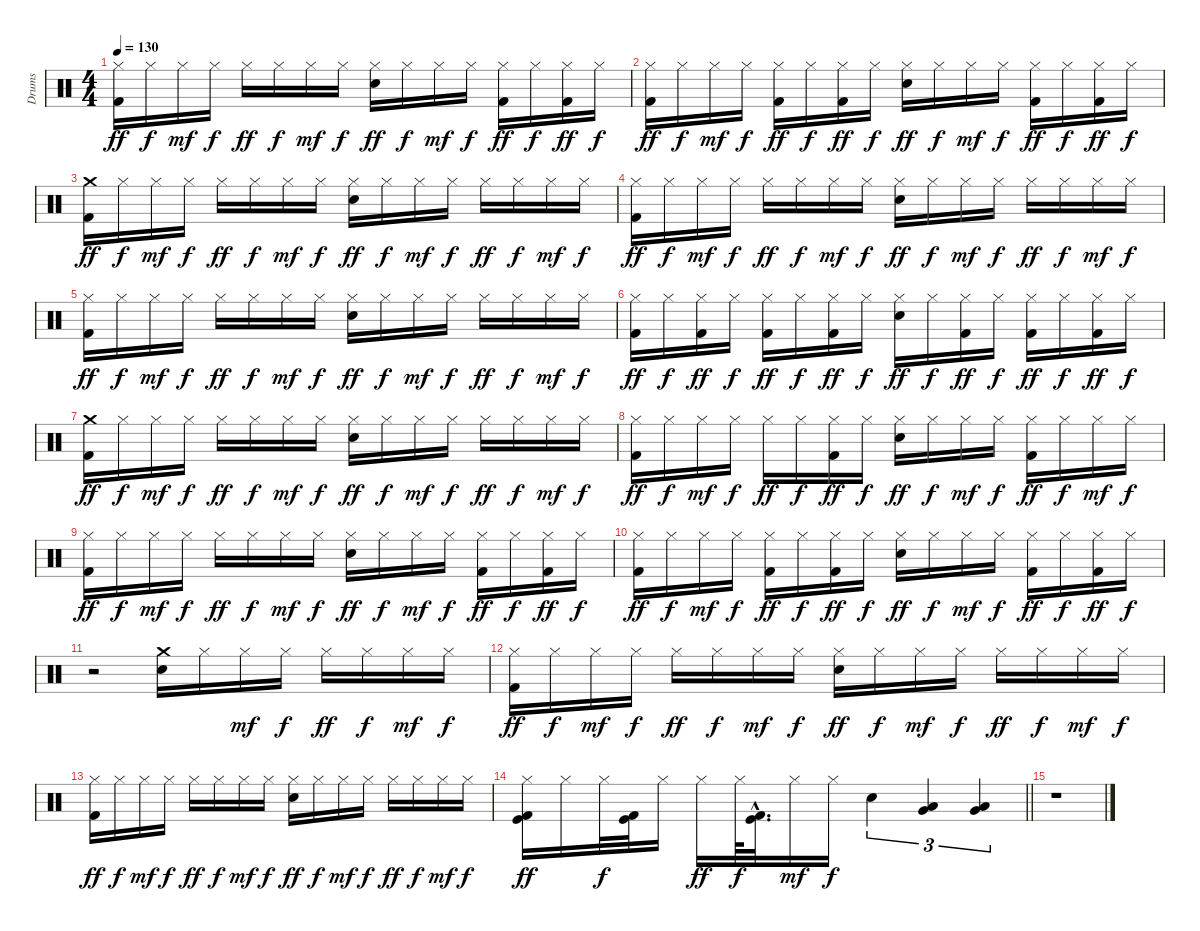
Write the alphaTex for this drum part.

\track ("Drums" "Drums") {instrument percussion}
\staff {score}
\articulation defaults
\ts (4 4)
\tempo 130
\clef neutral
\ks c
("Hi-Hat (closed)" "Kick (hit) 2").16{dy ff} "Hi-Hat (closed)".16{dy f} "Hi-Hat (closed)".16{dy mf} "Hi-Hat (closed)".16{dy f} "Hi-Hat (closed)".16{dy ff} "Hi-Hat (closed)".16{dy f} "Hi-Hat (closed)".16{dy mf} "Hi-Hat (closed)".16{dy f} ("Hi-Hat (closed)" "Snare (hit) 2").16{dy ff} "Hi-Hat (closed)".16{dy f} "Hi-Hat (closed)".16{dy mf} "Hi-Hat (closed)".16{dy f} ("Hi-Hat (closed)" "Kick (hit) 2").16{dy ff} "Hi-Hat (closed)".16{dy f} ("Hi-Hat (closed)" "Kick (hit) 2").16{dy ff} "Hi-Hat (closed)".16{dy f} |
("Hi-Hat (closed)" "Kick (hit) 2").16{dy ff} "Hi-Hat (closed)".16{dy f} "Hi-Hat (closed)".16{dy mf} "Hi-Hat (closed)".16{dy f} ("Hi-Hat (closed)" "Kick (hit) 2").16{dy ff} "Hi-Hat (closed)".16{dy f} ("Hi-Hat (closed)" "Kick (hit) 2").16{dy ff} "Hi-Hat (closed)".16{dy f} ("Hi-Hat (closed)" "Snare (hit) 2").16{dy ff} "Hi-Hat (closed)".16{dy f} "Hi-Hat (closed)".16{dy mf} "Hi-Hat (closed)".16{dy f} ("Hi-Hat (closed)" "Kick (hit) 2").16{dy ff} "Hi-Hat (closed)".16{dy f} ("Hi-Hat (closed)" "Kick (hit) 2").16{dy ff} "Hi-Hat (closed)".16{dy f} |
("Crash medium (hit)" "Kick (hit) 2").16{dy ff} "Hi-Hat (closed)".16{dy f} "Hi-Hat (closed)".16{dy mf} "Hi-Hat (closed)".16{dy f} "Hi-Hat (closed)".16{dy ff} "Hi-Hat (closed)".16{dy f} "Hi-Hat (closed)".16{dy mf} "Hi-Hat (closed)".16{dy f} ("Hi-Hat (closed)" "Snare (hit) 2").16{dy ff} "Hi-Hat (closed)".16{dy f} "Hi-Hat (closed)".16{dy mf} "Hi-Hat (closed)".16{dy f} "Hi-Hat (closed)".16{dy ff} "Hi-Hat (closed)".16{dy f} "Hi-Hat (closed)".16{dy mf} "Hi-Hat (closed)".16{dy f} |
("Hi-Hat (closed)" "Kick (hit) 2").16{dy ff} "Hi-Hat (closed)".16{dy f} "Hi-Hat (closed)".16{dy mf} "Hi-Hat (closed)".16{dy f} "Hi-Hat (closed)".16{dy ff} "Hi-Hat (closed)".16{dy f} "Hi-Hat (closed)".16{dy mf} "Hi-Hat (closed)".16{dy f} ("Hi-Hat (closed)" "Snare (hit) 2").16{dy ff} "Hi-Hat (closed)".16{dy f} "Hi-Hat (closed)".16{dy mf} "Hi-Hat (closed)".16{dy f} "Hi-Hat (closed)".16{dy ff} "Hi-Hat (closed)".16{dy f} "Hi-Hat (closed)".16{dy mf} "Hi-Hat (closed)".16{dy f} |
("Hi-Hat (closed)" "Kick (hit) 2").16{dy ff} "Hi-Hat (closed)".16{dy f} "Hi-Hat (closed)".16{dy mf} "Hi-Hat (closed)".16{dy f} "Hi-Hat (closed)".16{dy ff} "Hi-Hat (closed)".16{dy f} "Hi-Hat (closed)".16{dy mf} "Hi-Hat (closed)".16{dy f} ("Hi-Hat (closed)" "Snare (hit) 2").16{dy ff} "Hi-Hat (closed)".16{dy f} "Hi-Hat (closed)".16{dy mf} "Hi-Hat (closed)".16{dy f} "Hi-Hat (closed)".16{dy ff} "Hi-Hat (closed)".16{dy f} "Hi-Hat (closed)".16{dy mf} "Hi-Hat (closed)".16{dy f} |
("Hi-Hat (closed)" "Kick (hit) 2").16{dy ff} "Hi-Hat (closed)".16{dy f} ("Hi-Hat (closed)" "Kick (hit) 2").16{dy ff} "Hi-Hat (closed)".16{dy f} ("Hi-Hat (closed)" "Kick (hit) 2").16{dy ff} "Hi-Hat (closed)".16{dy f} ("Hi-Hat (closed)" "Kick (hit) 2").16{dy ff} "Hi-Hat (closed)".16{dy f} ("Hi-Hat (closed)" "Snare (hit) 2").16{dy ff} "Hi-Hat (closed)".16{dy f} ("Hi-Hat (closed)" "Kick (hit) 2").16{dy ff} "Hi-Hat (closed)".16{dy f} ("Hi-Hat (closed)" "Kick (hit) 2").16{dy ff} "Hi-Hat (closed)".16{dy f} ("Hi-Hat (closed)" "Kick (hit) 2").16{dy ff} "Hi-Hat (closed)".16{dy f} |
("Crash medium (hit)" "Kick (hit) 2").16{dy ff} "Hi-Hat (closed)".16{dy f} "Hi-Hat (closed)".16{dy mf} "Hi-Hat (closed)".16{dy f} "Hi-Hat (closed)".16{dy ff} "Hi-Hat (closed)".16{dy f} "Hi-Hat (closed)".16{dy mf} "Hi-Hat (closed)".16{dy f} ("Hi-Hat (closed)" "Snare (hit) 2").16{dy ff} "Hi-Hat (closed)".16{dy f} "Hi-Hat (closed)".16{dy mf} "Hi-Hat (closed)".16{dy f} "Hi-Hat (closed)".16{dy ff} "Hi-Hat (closed)".16{dy f} "Hi-Hat (closed)".16{dy mf} "Hi-Hat (closed)".16{dy f} |
("Hi-Hat (closed)" "Kick (hit) 2").16{dy ff} "Hi-Hat (closed)".16{dy f} "Hi-Hat (closed)".16{dy mf} "Hi-Hat (closed)".16{dy f} "Hi-Hat (closed)".16{dy ff} "Hi-Hat (closed)".16{dy f} ("Hi-Hat (closed)" "Kick (hit) 2").16{dy ff} "Hi-Hat (closed)".16{dy f} ("Hi-Hat (closed)" "Snare (hit) 2").16{dy ff} "Hi-Hat (closed)".16{dy f} "Hi-Hat (closed)".16{dy mf} "Hi-Hat (closed)".16{dy f} ("Hi-Hat (closed)" "Kick (hit) 2").16{dy ff} "Hi-Hat (closed)".16{dy f} "Hi-Hat (closed)".16{dy mf} "Hi-Hat (closed)".16{dy f} |
("Hi-Hat (closed)" "Kick (hit) 2").16{dy ff} "Hi-Hat (closed)".16{dy f} "Hi-Hat (closed)".16{dy mf} "Hi-Hat (closed)".16{dy f} "Hi-Hat (closed)".16{dy ff} "Hi-Hat (closed)".16{dy f} "Hi-Hat (closed)".16{dy mf} "Hi-Hat (closed)".16{dy f} ("Hi-Hat (closed)" "Snare (hit) 2").16{dy ff} "Hi-Hat (closed)".16{dy f} "Hi-Hat (closed)".16{dy mf} "Hi-Hat (closed)".16{dy f} ("Hi-Hat (closed)" "Kick (hit) 2").16{dy ff} "Hi-Hat (closed)".16{dy f} ("Hi-Hat (closed)" "Kick (hit) 2").16{dy ff} "Hi-Hat (closed)".16{dy f} |
("Hi-Hat (closed)" "Kick (hit) 2").16{dy ff} "Hi-Hat (closed)".16{dy f} "Hi-Hat (closed)".16{dy mf} "Hi-Hat (closed)".16{dy f} ("Hi-Hat (closed)" "Kick (hit) 2").16{dy ff} "Hi-Hat (closed)".16{dy f} ("Hi-Hat (closed)" "Kick (hit) 2").16{dy ff} "Hi-Hat (closed)".16{dy f} ("Hi-Hat (closed)" "Snare (hit) 2").16{dy ff} "Hi-Hat (closed)".16{dy f} "Hi-Hat (closed)".16{dy mf} "Hi-Hat (closed)".16{dy f} ("Hi-Hat (closed)" "Kick (hit) 2").16{dy ff} "Hi-Hat (closed)".16{dy f} ("Hi-Hat (closed)" "Kick (hit) 2").16{dy ff} "Hi-Hat (closed)".16{dy f} |
r.2 ("Crash medium (hit)" "Snare (hit) 2").16 "Hi-Hat (closed)".16 "Hi-Hat (closed)".16{dy mf} "Hi-Hat (closed)".16{dy f} "Hi-Hat (closed)".16{dy ff} "Hi-Hat (closed)".16{dy f} "Hi-Hat (closed)".16{dy mf} "Hi-Hat (closed)".16{dy f} |
("Hi-Hat (closed)" "Kick (hit) 2").16{dy ff} "Hi-Hat (closed)".16{dy f} "Hi-Hat (closed)".16{dy mf} "Hi-Hat (closed)".16{dy f} "Hi-Hat (closed)".16{dy ff} "Hi-Hat (closed)".16{dy f} "Hi-Hat (closed)".16{dy mf} "Hi-Hat (closed)".16{dy f} ("Hi-Hat (closed)" "Snare (hit) 2").16{dy ff} "Hi-Hat (closed)".16{dy f} "Hi-Hat (closed)".16{dy mf} "Hi-Hat (closed)".16{dy f} "Hi-Hat (closed)".16{dy ff} "Hi-Hat (closed)".16{dy f} "Hi-Hat (closed)".16{dy mf} "Hi-Hat (closed)".16{dy f} |
("Hi-Hat (closed)" "Kick (hit) 2").16{dy ff} "Hi-Hat (closed)".16{dy f} "Hi-Hat (closed)".16{dy mf} "Hi-Hat (closed)".16{dy f} "Hi-Hat (closed)".16{dy ff} "Hi-Hat (closed)".16{dy f} "Hi-Hat (closed)".16{dy mf} "Hi-Hat (closed)".16{dy f} ("Hi-Hat (closed)" "Snare (hit) 2").16{dy ff} "Hi-Hat (closed)".16{dy f} "Hi-Hat (closed)".16{dy mf} "Hi-Hat (closed)".16{dy f} "Hi-Hat (closed)".16{dy ff} "Hi-Hat (closed)".16{dy f} "Hi-Hat (closed)".16{dy mf} "Hi-Hat (closed)".16{dy f} |
\barLineRight lightlight
("Hi-Hat (closed)" "Kick (hit)" "Kick (hit) 2").16{dy ff} "Hi-Hat (closed)".16 "Hi-Hat (closed)".32{dy f} ("Kick (hit)" "Kick (hit) 2").32 "Hi-Hat (closed)".16 "Hi-Hat (closed)".16{dy ff} "Hi-Hat (closed)".64{dy f} ("Kick (hit)"{hac} "Kick (hit) 2"{hac}).32{d} "Hi-Hat (closed)".16{dy mf} "Hi-Hat (closed)".16{dy f} "Snare (hit) 2".4{tu (3 2)} ("Low Tom (hit)" "Very Low Tom (hit)").4{tu (3 2)} ("Very Low Tom (hit)" "Low Floor Tom (hit)").4{tu (3 2)} |
r.1
